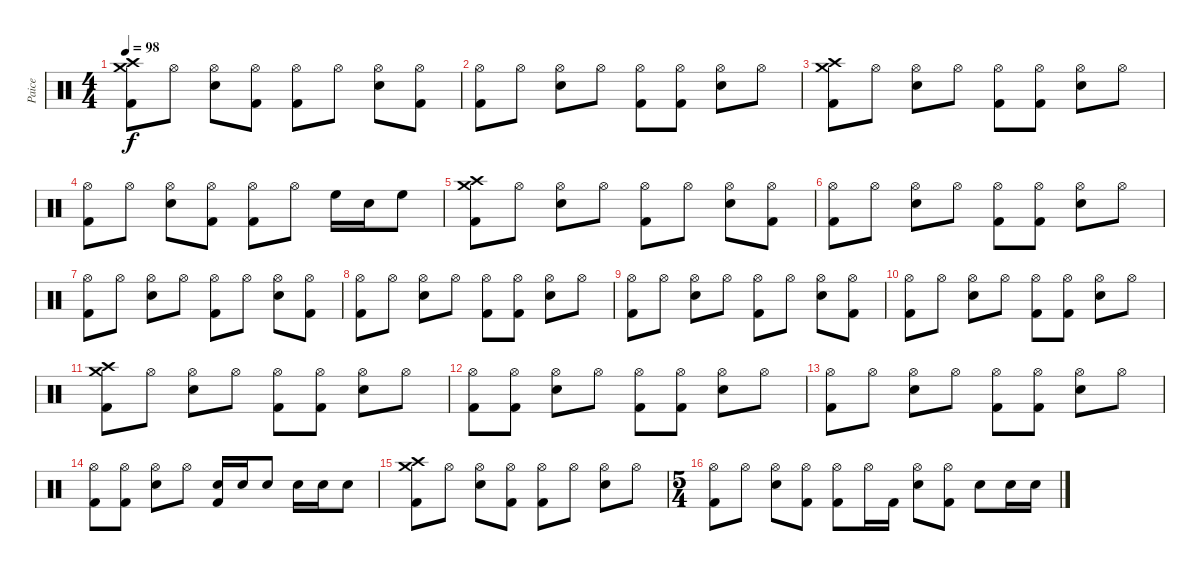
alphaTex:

\track ("Paice" "Paice") {instrument percussion}
\staff {score}
\articulation defaults
\ts (4 4)
\tempo 98
\clef neutral
\ks c
("Crash high (hit)" "Crash medium (hit)" "Kick (hit) 2").8{dy f} "Hi-Hat (open)".8 ("Hi-Hat (open)" "Electric Snare (hit)").8 ("Hi-Hat (open)" "Kick (hit) 2").8 ("Hi-Hat (open)" "Kick (hit) 2").8 "Hi-Hat (open)".8 ("Hi-Hat (open)" "Electric Snare (hit)").8 ("Hi-Hat (open)" "Kick (hit) 2").8 |
("Hi-Hat (open)" "Kick (hit) 2").8 "Hi-Hat (open)".8 ("Hi-Hat (open)" "Electric Snare (hit)").8 "Hi-Hat (open)".8 ("Hi-Hat (open)" "Kick (hit) 2").8 ("Hi-Hat (open)" "Kick (hit) 2").8 ("Hi-Hat (open)" "Electric Snare (hit)").8 "Hi-Hat (open)".8 |
("Crash high (hit)" "Crash medium (hit)" "Kick (hit) 2").8 "Hi-Hat (open)".8 ("Hi-Hat (open)" "Electric Snare (hit)").8 "Hi-Hat (open)".8 ("Hi-Hat (open)" "Kick (hit) 2").8 ("Hi-Hat (open)" "Kick (hit) 2").8 ("Hi-Hat (open)" "Electric Snare (hit)").8 "Hi-Hat (open)".8 |
("Hi-Hat (open)" "Kick (hit) 2").8 "Hi-Hat (open)".8 ("Hi-Hat (open)" "Electric Snare (hit)").8 ("Hi-Hat (open)" "Kick (hit) 2").8 ("Hi-Hat (open)" "Kick (hit) 2").8 "Hi-Hat (open)".8 "High Floor Tom (hit)".16 "Electric Snare (hit)".16 "High Floor Tom (hit)".8 |
("Crash high (hit)" "Crash medium (hit)" "Kick (hit) 2").8 "Hi-Hat (open)".8 ("Hi-Hat (open)" "Electric Snare (hit)").8 "Hi-Hat (open)".8 ("Hi-Hat (open)" "Kick (hit) 2").8 "Hi-Hat (open)".8 ("Hi-Hat (open)" "Electric Snare (hit)").8 ("Hi-Hat (open)" "Kick (hit) 2").8 |
("Hi-Hat (open)" "Kick (hit) 2").8 "Hi-Hat (open)".8 ("Hi-Hat (open)" "Electric Snare (hit)").8 "Hi-Hat (open)".8 ("Hi-Hat (open)" "Kick (hit) 2").8 ("Hi-Hat (open)" "Kick (hit) 2").8 ("Hi-Hat (open)" "Electric Snare (hit)").8 "Hi-Hat (open)".8 |
("Hi-Hat (open)" "Kick (hit) 2").8 "Hi-Hat (open)".8 ("Hi-Hat (open)" "Electric Snare (hit)").8 "Hi-Hat (open)".8 ("Hi-Hat (open)" "Kick (hit) 2").8 "Hi-Hat (open)".8 ("Hi-Hat (open)" "Electric Snare (hit)").8 ("Hi-Hat (open)" "Kick (hit) 2").8 |
("Hi-Hat (open)" "Kick (hit) 2").8 "Hi-Hat (open)".8 ("Hi-Hat (open)" "Electric Snare (hit)").8 "Hi-Hat (open)".8 ("Hi-Hat (open)" "Kick (hit) 2").8 ("Hi-Hat (open)" "Kick (hit) 2").8 ("Hi-Hat (open)" "Electric Snare (hit)").8 "Hi-Hat (open)".8 |
("Hi-Hat (open)" "Kick (hit) 2").8 "Hi-Hat (open)".8 ("Hi-Hat (open)" "Electric Snare (hit)").8 "Hi-Hat (open)".8 ("Hi-Hat (open)" "Kick (hit) 2").8 "Hi-Hat (open)".8 ("Hi-Hat (open)" "Electric Snare (hit)").8 ("Hi-Hat (open)" "Kick (hit) 2").8 |
("Hi-Hat (open)" "Kick (hit) 2").8 "Hi-Hat (open)".8 ("Hi-Hat (open)" "Electric Snare (hit)").8 "Hi-Hat (open)".8 ("Hi-Hat (open)" "Kick (hit) 2").8 ("Hi-Hat (open)" "Kick (hit) 2").8 ("Hi-Hat (open)" "Electric Snare (hit)").8 "Hi-Hat (open)".8 |
("Crash high (hit)" "Crash medium (hit)" "Kick (hit) 2").8 "Hi-Hat (open)".8 ("Hi-Hat (open)" "Electric Snare (hit)").8 "Hi-Hat (open)".8 ("Hi-Hat (open)" "Kick (hit) 2").8 ("Hi-Hat (open)" "Kick (hit) 2").8 ("Hi-Hat (open)" "Electric Snare (hit)").8 "Hi-Hat (open)".8 |
("Hi-Hat (open)" "Kick (hit) 2").8 ("Hi-Hat (open)" "Kick (hit) 2").8 ("Hi-Hat (open)" "Electric Snare (hit)").8 "Hi-Hat (open)".8 ("Hi-Hat (open)" "Kick (hit) 2").8 ("Hi-Hat (open)" "Kick (hit) 2").8 ("Hi-Hat (open)" "Electric Snare (hit)").8 "Hi-Hat (open)".8 |
("Hi-Hat (open)" "Kick (hit) 2").8 "Hi-Hat (open)".8 ("Hi-Hat (open)" "Electric Snare (hit)").8 "Hi-Hat (open)".8 ("Hi-Hat (open)" "Kick (hit) 2").8 ("Hi-Hat (open)" "Kick (hit) 2").8 ("Hi-Hat (open)" "Electric Snare (hit)").8 "Hi-Hat (open)".8 |
("Hi-Hat (open)" "Kick (hit) 2").8 ("Hi-Hat (open)" "Kick (hit) 2").8 ("Hi-Hat (open)" "Electric Snare (hit)").8 "Hi-Hat (open)".8 ("Electric Snare (hit)" "Kick (hit) 2").16 "Electric Snare (hit)".16 "Electric Snare (hit)".8 "Electric Snare (hit)".16 "Electric Snare (hit)".16 "Electric Snare (hit)".8 |
("Crash high (hit)" "Crash medium (hit)" "Kick (hit) 2").8 "Hi-Hat (open)".8 ("Hi-Hat (open)" "Electric Snare (hit)").8 ("Hi-Hat (open)" "Kick (hit) 2").8 ("Hi-Hat (open)" "Kick (hit) 2").8 "Hi-Hat (open)".8 ("Hi-Hat (open)" "Electric Snare (hit)").8 "Hi-Hat (open)".8 |
\ts (5 4)
("Hi-Hat (open)" "Kick (hit) 2").8 "Hi-Hat (open)".8 ("Hi-Hat (open)" "Electric Snare (hit)").8 ("Hi-Hat (open)" "Kick (hit) 2").8 ("Hi-Hat (open)" "Kick (hit) 2").8 "Hi-Hat (open)".16 "Kick (hit) 2".16 ("Hi-Hat (open)" "Electric Snare (hit)").8 ("Hi-Hat (open)" "Kick (hit) 2").8 "Electric Snare (hit)".8 "Electric Snare (hit)".16 "Electric Snare (hit)".16
